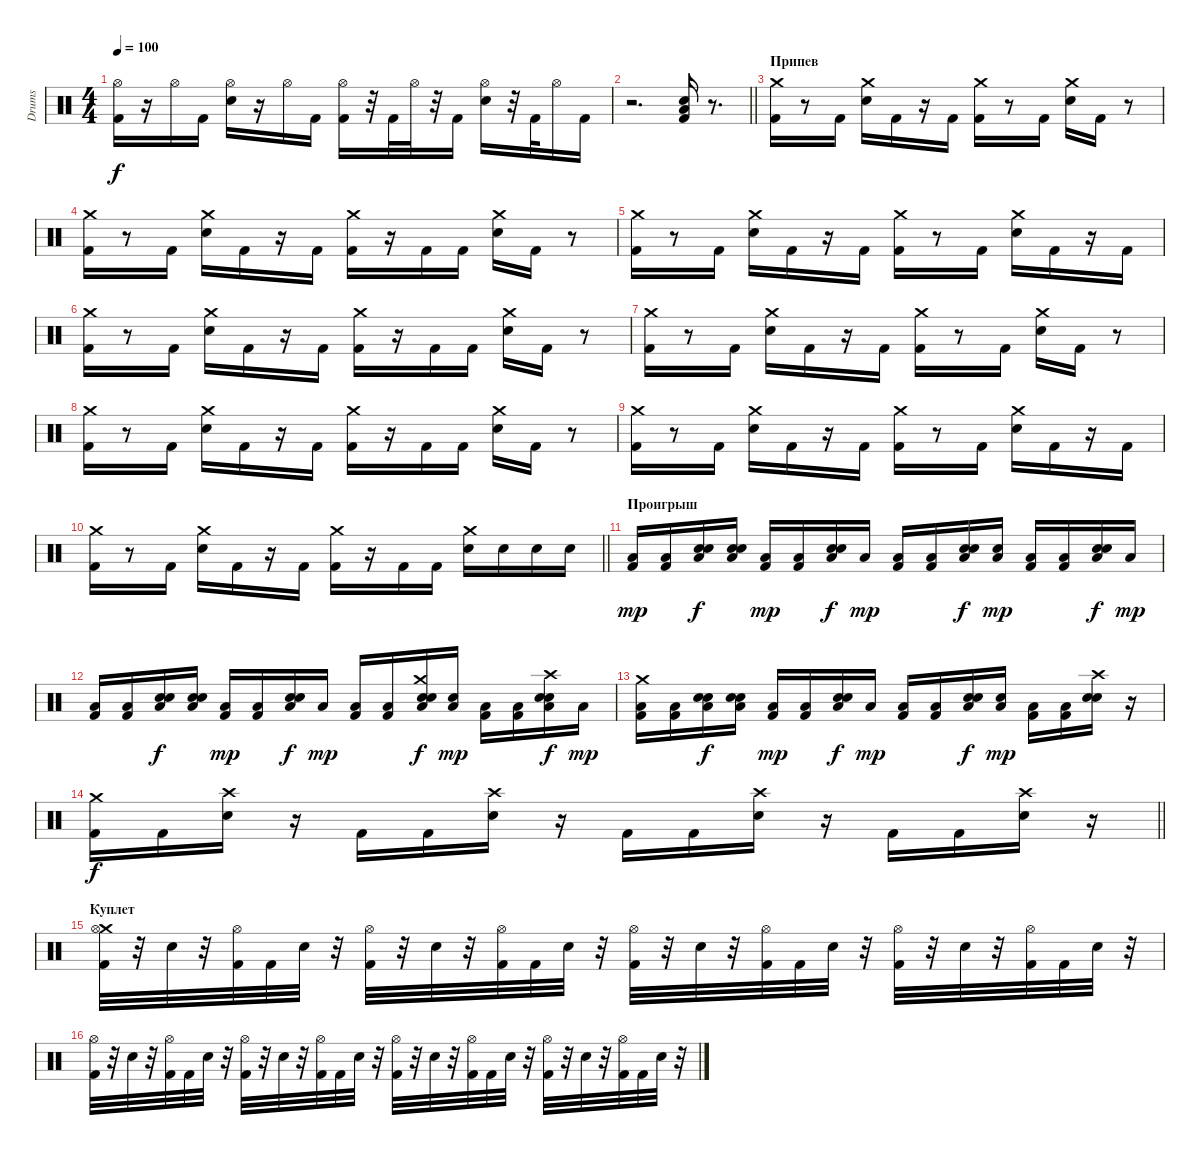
\track ("Drums" "Drums") {instrument percussion}
\staff {score}
\articulation defaults
\ts (4 4)
\tempo 100
\clef neutral
\ks c
("Hi-Hat (open)" "Kick (hit) 2").16{dy f} r.16 "Hi-Hat (open)".16 "Kick (hit) 2".16 ("Hi-Hat (open)" "Electric Snare (hit)").16 r.16 "Hi-Hat (open)".16 "Kick (hit) 2".16 ("Hi-Hat (open)" "Kick (hit) 2").16 r.32 "Kick (hit) 2".32 "Hi-Hat (open)".32 r.32 "Kick (hit) 2".16 ("Hi-Hat (open)" "Electric Snare (hit)").16 r.32 "Kick (hit) 2".32 "Hi-Hat (open)".16 "Kick (hit) 2".16 |
\barLineRight lightlight
r.2{d} ("Low Floor Tom (hit)" "Electric Snare (hit)" "Kick (hit) 2").16 r.8{d} |
\section ("" "Припев")
("Crash medium (hit)" "Kick (hit) 2").16 r.8 "Kick (hit) 2".16 ("Crash medium (hit)" "Electric Snare (hit)").16 "Kick (hit) 2".16 r.16 "Kick (hit) 2".16 ("Crash medium (hit)" "Kick (hit) 2").16 r.8 "Kick (hit) 2".16 ("Crash medium (hit)" "Electric Snare (hit)").16 "Kick (hit) 2".16 r.8 |
("Crash medium (hit)" "Kick (hit) 2").16 r.8 "Kick (hit) 2".16 ("Crash medium (hit)" "Electric Snare (hit)").16 "Kick (hit) 2".16 r.16 "Kick (hit) 2".16 ("Crash medium (hit)" "Kick (hit) 2").16 r.16 "Kick (hit) 2".16 "Kick (hit) 2".16 ("Crash medium (hit)" "Electric Snare (hit)").16 "Kick (hit) 2".16 r.8 |
("Crash medium (hit)" "Kick (hit) 2").16 r.8 "Kick (hit) 2".16 ("Crash medium (hit)" "Electric Snare (hit)").16 "Kick (hit) 2".16 r.16 "Kick (hit) 2".16 ("Crash medium (hit)" "Kick (hit) 2").16 r.8 "Kick (hit) 2".16 ("Crash medium (hit)" "Electric Snare (hit)").16 "Kick (hit) 2".16 r.16 "Kick (hit) 2".16 |
("Crash medium (hit)" "Kick (hit) 2").16 r.8 "Kick (hit) 2".16 ("Crash medium (hit)" "Electric Snare (hit)").16 "Kick (hit) 2".16 r.16 "Kick (hit) 2".16 ("Crash medium (hit)" "Kick (hit) 2").16 r.16 "Kick (hit) 2".16 "Kick (hit) 2".16 ("Crash medium (hit)" "Electric Snare (hit)").16 "Kick (hit) 2".16 r.8 |
("Crash medium (hit)" "Kick (hit) 2").16 r.8 "Kick (hit) 2".16 ("Crash medium (hit)" "Electric Snare (hit)").16 "Kick (hit) 2".16 r.16 "Kick (hit) 2".16 ("Crash medium (hit)" "Kick (hit) 2").16 r.8 "Kick (hit) 2".16 ("Crash medium (hit)" "Electric Snare (hit)").16 "Kick (hit) 2".16 r.8 |
("Crash medium (hit)" "Kick (hit) 2").16 r.8 "Kick (hit) 2".16 ("Crash medium (hit)" "Electric Snare (hit)").16 "Kick (hit) 2".16 r.16 "Kick (hit) 2".16 ("Crash medium (hit)" "Kick (hit) 2").16 r.16 "Kick (hit) 2".16 "Kick (hit) 2".16 ("Crash medium (hit)" "Electric Snare (hit)").16 "Kick (hit) 2".16 r.8 |
("Crash medium (hit)" "Kick (hit) 2").16 r.8 "Kick (hit) 2".16 ("Crash medium (hit)" "Electric Snare (hit)").16 "Kick (hit) 2".16 r.16 "Kick (hit) 2".16 ("Crash medium (hit)" "Kick (hit) 2").16 r.8 "Kick (hit) 2".16 ("Crash medium (hit)" "Electric Snare (hit)").16 "Kick (hit) 2".16 r.16 "Kick (hit) 2".16 |
\barLineRight lightlight
("Crash medium (hit)" "Kick (hit) 2").16 r.8 "Kick (hit) 2".16 ("Crash medium (hit)" "Electric Snare (hit)").16 "Kick (hit) 2".16 r.16 "Kick (hit) 2".16 ("Crash medium (hit)" "Kick (hit) 2").16 r.16 "Kick (hit) 2".16 "Kick (hit) 2".16 ("Crash medium (hit)" "Electric Snare (hit)").16 "Electric Snare (hit)".16 "Electric Snare (hit)".16 "Electric Snare (hit)".16 |
\section ("" "Проигрыш")
("Low Floor Tom (hit)" "Kick (hit) 2").16{dy mp} ("Low Floor Tom (hit)" "Kick (hit) 2").16 ("Hand Clap (hit)" "Low Floor Tom (hit)" "Electric Snare (hit)").16{dy f} ("Hand Clap (hit)" "Low Floor Tom (hit)" "Electric Snare (hit)").16 ("Low Floor Tom (hit)" "Kick (hit) 2").16{dy mp} ("Low Floor Tom (hit)" "Kick (hit) 2").16 ("Hand Clap (hit)" "Low Floor Tom (hit)" "Electric Snare (hit)").16{dy f} "Low Floor Tom (hit)".16{dy mp} ("Low Floor Tom (hit)" "Kick (hit) 2").16 ("Low Floor Tom (hit)" "Kick (hit) 2").16 ("Hand Clap (hit)" "Low Floor Tom (hit)" "Electric Snare (hit)").16{dy f} ("Hand Clap (hit)" "Low Floor Tom (hit)").16{dy mp} ("Low Floor Tom (hit)" "Kick (hit) 2").16 ("Low Floor Tom (hit)" "Kick (hit) 2").16 ("Hand Clap (hit)" "Low Floor Tom (hit)" "Electric Snare (hit)").16{dy f} "Low Floor Tom (hit)".16{dy mp} |
("Low Floor Tom (hit)" "Kick (hit) 2").16 ("Low Floor Tom (hit)" "Kick (hit) 2").16 ("Hand Clap (hit)" "Low Floor Tom (hit)" "Electric Snare (hit)").16{dy f} ("Hand Clap (hit)" "Low Floor Tom (hit)" "Electric Snare (hit)").16 ("Low Floor Tom (hit)" "Kick (hit) 2").16{dy mp} ("Low Floor Tom (hit)" "Kick (hit) 2").16 ("Hand Clap (hit)" "Low Floor Tom (hit)" "Electric Snare (hit)").16{dy f} "Low Floor Tom (hit)".16{dy mp} ("Low Floor Tom (hit)" "Kick (hit) 2").16 ("Low Floor Tom (hit)" "Kick (hit) 2").16 ("Crash medium (hit)" "Hand Clap (hit)" "Low Floor Tom (hit)" "Electric Snare (hit)").16{dy f} ("Hand Clap (hit)" "Low Floor Tom (hit)").16{dy mp} ("Low Floor Tom (hit)" "Kick (hit) 2").16 ("Low Floor Tom (hit)" "Kick (hit) 2").16 ("Crash high (hit)" "Hand Clap (hit)" "Low Floor Tom (hit)" "Electric Snare (hit)").16{dy f} "Low Floor Tom (hit)".16{dy mp} |
("Crash medium (hit)" "Low Floor Tom (hit)" "Kick (hit) 2").16 ("Low Floor Tom (hit)" "Kick (hit) 2").16 ("Hand Clap (hit)" "Low Floor Tom (hit)" "Electric Snare (hit)").16{dy f} ("Hand Clap (hit)" "Low Floor Tom (hit)" "Electric Snare (hit)").16 ("Low Floor Tom (hit)" "Kick (hit) 2").16{dy mp} ("Low Floor Tom (hit)" "Kick (hit) 2").16 ("Hand Clap (hit)" "Low Floor Tom (hit)" "Electric Snare (hit)").16{dy f} "Low Floor Tom (hit)".16{dy mp} ("Low Floor Tom (hit)" "Kick (hit) 2").16 ("Low Floor Tom (hit)" "Kick (hit) 2").16 ("Hand Clap (hit)" "Low Floor Tom (hit)" "Electric Snare (hit)").16{dy f} ("Hand Clap (hit)" "Low Floor Tom (hit)").16{dy mp} ("Low Floor Tom (hit)" "Kick (hit) 2").16 ("Low Floor Tom (hit)" "Kick (hit) 2").16 ("Crash high (hit)" "Hand Clap (hit)" "Electric Snare (hit)").16 r.16 |
\barLineRight lightlight
("Crash medium (hit)" "Kick (hit) 2").16{dy f} "Kick (hit) 2".16 ("Crash high (hit)" "Electric Snare (hit)").16 r.16 "Kick (hit) 2".16 "Kick (hit) 2".16 ("Crash high (hit)" "Electric Snare (hit)").16 r.16 "Kick (hit) 2".16 "Kick (hit) 2".16 ("Crash high (hit)" "Electric Snare (hit)").16 r.16 "Kick (hit) 2".16 "Kick (hit) 2".16 ("Crash high (hit)" "Electric Snare (hit)").16 r.16 |
\section ("" "Куплет")
("Crash medium (hit)" "Hi-Hat (open)" "Kick (hit) 2").32 r.32 "Electric Snare (hit)".32 r.32 ("Hi-Hat (open)" "Kick (hit) 2").32 "Kick (hit) 2".32 "Electric Snare (hit)".32 r.32 ("Hi-Hat (open)" "Kick (hit) 2").32 r.32 "Electric Snare (hit)".32 r.32 ("Hi-Hat (open)" "Kick (hit) 2").32 "Kick (hit) 2".32 "Electric Snare (hit)".32 r.32 ("Hi-Hat (open)" "Kick (hit) 2").32 r.32 "Electric Snare (hit)".32 r.32 ("Hi-Hat (open)" "Kick (hit) 2").32 "Kick (hit) 2".32 "Electric Snare (hit)".32 r.32 ("Hi-Hat (open)" "Kick (hit) 2").32 r.32 "Electric Snare (hit)".32 r.32 ("Hi-Hat (open)" "Kick (hit) 2").32 "Kick (hit) 2".32 "Electric Snare (hit)".32 r.32 |
("Hi-Hat (open)" "Kick (hit) 2").32 r.32 "Electric Snare (hit)".32 r.32 ("Hi-Hat (open)" "Kick (hit) 2").32 "Kick (hit) 2".32 "Electric Snare (hit)".32 r.32 ("Hi-Hat (open)" "Kick (hit) 2").32 r.32 "Electric Snare (hit)".32 r.32 ("Hi-Hat (open)" "Kick (hit) 2").32 "Kick (hit) 2".32 "Electric Snare (hit)".32 r.32 ("Hi-Hat (open)" "Kick (hit) 2").32 r.32 "Electric Snare (hit)".32 r.32 ("Hi-Hat (open)" "Kick (hit) 2").32 "Kick (hit) 2".32 "Electric Snare (hit)".32 r.32 ("Hi-Hat (open)" "Kick (hit) 2").32 r.32 "Electric Snare (hit)".32 r.32 ("Hi-Hat (open)" "Kick (hit) 2").32 "Kick (hit) 2".32 "Electric Snare (hit)".32 r.32
